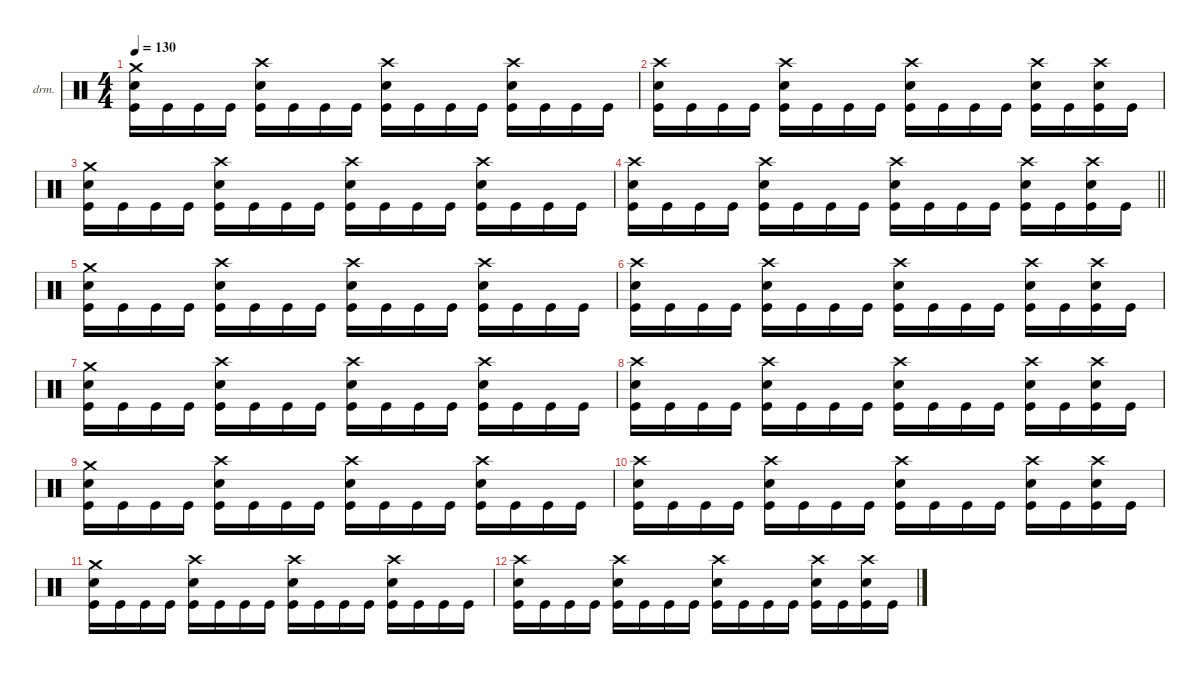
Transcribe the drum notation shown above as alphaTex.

\defaultSystemsLayout 4
\hideDynamics
\bracketExtendMode nobrackets
\firstSystemTrackNameOrientation horizontal
\otherSystemsTrackNameOrientation horizontal
\track ("Drums" "drm.") {instrument percussion}
\staff {score}
\articulation defaults
\ts (4 4)
\tempo 130
\clef neutral
\ks c
("Crash medium (hit)" "Snare (hit) 2" "Kick (hit)").16{dy f} "Kick (hit)".16 "Kick (hit)".16 "Kick (hit)".16 ("Crash high (hit)" "Snare (hit) 2" "Kick (hit)").16 "Kick (hit)".16 "Kick (hit)".16 "Kick (hit)".16 ("Crash high (hit)" "Snare (hit) 2" "Kick (hit)").16 "Kick (hit)".16 "Kick (hit)".16 "Kick (hit)".16 ("Crash high (hit)" "Snare (hit) 2" "Kick (hit)").16 "Kick (hit)".16 "Kick (hit)".16 "Kick (hit)".16 |
("Crash high (hit)" "Snare (hit) 2" "Kick (hit)").16 "Kick (hit)".16 "Kick (hit)".16 "Kick (hit)".16 ("Crash high (hit)" "Snare (hit) 2" "Kick (hit)").16 "Kick (hit)".16 "Kick (hit)".16 "Kick (hit)".16 ("Crash high (hit)" "Snare (hit) 2" "Kick (hit)").16 "Kick (hit)".16 "Kick (hit)".16 "Kick (hit)".16 ("Crash high (hit)" "Snare (hit) 2" "Kick (hit)").16 "Kick (hit)".16 ("Crash high (hit)" "Snare (hit) 2" "Kick (hit)").16 "Kick (hit)".16 |
("Crash medium (hit)" "Snare (hit) 2" "Kick (hit)").16 "Kick (hit)".16 "Kick (hit)".16 "Kick (hit)".16 ("Crash high (hit)" "Snare (hit) 2" "Kick (hit)").16 "Kick (hit)".16 "Kick (hit)".16 "Kick (hit)".16 ("Crash high (hit)" "Snare (hit) 2" "Kick (hit)").16 "Kick (hit)".16 "Kick (hit)".16 "Kick (hit)".16 ("Crash high (hit)" "Snare (hit) 2" "Kick (hit)").16 "Kick (hit)".16 "Kick (hit)".16 "Kick (hit)".16 |
\barLineRight lightlight
("Crash high (hit)" "Snare (hit) 2" "Kick (hit)").16 "Kick (hit)".16 "Kick (hit)".16 "Kick (hit)".16 ("Crash high (hit)" "Snare (hit) 2" "Kick (hit)").16 "Kick (hit)".16 "Kick (hit)".16 "Kick (hit)".16 ("Crash high (hit)" "Snare (hit) 2" "Kick (hit)").16 "Kick (hit)".16 "Kick (hit)".16 "Kick (hit)".16 ("Crash high (hit)" "Snare (hit) 2" "Kick (hit)").16 "Kick (hit)".16 ("Crash high (hit)" "Snare (hit) 2" "Kick (hit)").16 "Kick (hit)".16 |
\section ("" "")
("Crash medium (hit)" "Snare (hit) 2" "Kick (hit)").16 "Kick (hit)".16 "Kick (hit)".16 "Kick (hit)".16 ("Crash high (hit)" "Snare (hit) 2" "Kick (hit)").16 "Kick (hit)".16 "Kick (hit)".16 "Kick (hit)".16 ("Crash high (hit)" "Snare (hit) 2" "Kick (hit)").16 "Kick (hit)".16 "Kick (hit)".16 "Kick (hit)".16 ("Crash high (hit)" "Snare (hit) 2" "Kick (hit)").16 "Kick (hit)".16 "Kick (hit)".16 "Kick (hit)".16 |
("Crash high (hit)" "Snare (hit) 2" "Kick (hit)").16 "Kick (hit)".16 "Kick (hit)".16 "Kick (hit)".16 ("Crash high (hit)" "Snare (hit) 2" "Kick (hit)").16 "Kick (hit)".16 "Kick (hit)".16 "Kick (hit)".16 ("Crash high (hit)" "Snare (hit) 2" "Kick (hit)").16 "Kick (hit)".16 "Kick (hit)".16 "Kick (hit)".16 ("Crash high (hit)" "Snare (hit) 2" "Kick (hit)").16 "Kick (hit)".16 ("Crash high (hit)" "Snare (hit) 2" "Kick (hit)").16 "Kick (hit)".16 |
("Crash medium (hit)" "Snare (hit) 2" "Kick (hit)").16 "Kick (hit)".16 "Kick (hit)".16 "Kick (hit)".16 ("Crash high (hit)" "Snare (hit) 2" "Kick (hit)").16 "Kick (hit)".16 "Kick (hit)".16 "Kick (hit)".16 ("Crash high (hit)" "Snare (hit) 2" "Kick (hit)").16 "Kick (hit)".16 "Kick (hit)".16 "Kick (hit)".16 ("Crash high (hit)" "Snare (hit) 2" "Kick (hit)").16 "Kick (hit)".16 "Kick (hit)".16 "Kick (hit)".16 |
("Crash high (hit)" "Snare (hit) 2" "Kick (hit)").16 "Kick (hit)".16 "Kick (hit)".16 "Kick (hit)".16 ("Crash high (hit)" "Snare (hit) 2" "Kick (hit)").16 "Kick (hit)".16 "Kick (hit)".16 "Kick (hit)".16 ("Crash high (hit)" "Snare (hit) 2" "Kick (hit)").16 "Kick (hit)".16 "Kick (hit)".16 "Kick (hit)".16 ("Crash high (hit)" "Snare (hit) 2" "Kick (hit)").16 "Kick (hit)".16 ("Crash high (hit)" "Snare (hit) 2" "Kick (hit)").16 "Kick (hit)".16 |
("Crash medium (hit)" "Snare (hit) 2" "Kick (hit)").16 "Kick (hit)".16 "Kick (hit)".16 "Kick (hit)".16 ("Crash high (hit)" "Snare (hit) 2" "Kick (hit)").16 "Kick (hit)".16 "Kick (hit)".16 "Kick (hit)".16 ("Crash high (hit)" "Snare (hit) 2" "Kick (hit)").16 "Kick (hit)".16 "Kick (hit)".16 "Kick (hit)".16 ("Crash high (hit)" "Snare (hit) 2" "Kick (hit)").16 "Kick (hit)".16 "Kick (hit)".16 "Kick (hit)".16 |
("Crash high (hit)" "Snare (hit) 2" "Kick (hit)").16 "Kick (hit)".16 "Kick (hit)".16 "Kick (hit)".16 ("Crash high (hit)" "Snare (hit) 2" "Kick (hit)").16 "Kick (hit)".16 "Kick (hit)".16 "Kick (hit)".16 ("Crash high (hit)" "Snare (hit) 2" "Kick (hit)").16 "Kick (hit)".16 "Kick (hit)".16 "Kick (hit)".16 ("Crash high (hit)" "Snare (hit) 2" "Kick (hit)").16 "Kick (hit)".16 ("Crash high (hit)" "Snare (hit) 2" "Kick (hit)").16 "Kick (hit)".16 |
("Crash medium (hit)" "Snare (hit) 2" "Kick (hit)").16 "Kick (hit)".16 "Kick (hit)".16 "Kick (hit)".16 ("Crash high (hit)" "Snare (hit) 2" "Kick (hit)").16 "Kick (hit)".16 "Kick (hit)".16 "Kick (hit)".16 ("Crash high (hit)" "Snare (hit) 2" "Kick (hit)").16 "Kick (hit)".16 "Kick (hit)".16 "Kick (hit)".16 ("Crash high (hit)" "Snare (hit) 2" "Kick (hit)").16 "Kick (hit)".16 "Kick (hit)".16 "Kick (hit)".16 |
("Crash high (hit)" "Snare (hit) 2" "Kick (hit)").16 "Kick (hit)".16 "Kick (hit)".16 "Kick (hit)".16 ("Crash high (hit)" "Snare (hit) 2" "Kick (hit)").16 "Kick (hit)".16 "Kick (hit)".16 "Kick (hit)".16 ("Crash high (hit)" "Snare (hit) 2" "Kick (hit)").16 "Kick (hit)".16 "Kick (hit)".16 "Kick (hit)".16 ("Crash high (hit)" "Snare (hit) 2" "Kick (hit)").16 "Kick (hit)".16 ("Crash high (hit)" "Snare (hit) 2" "Kick (hit)").16 "Kick (hit)".16
